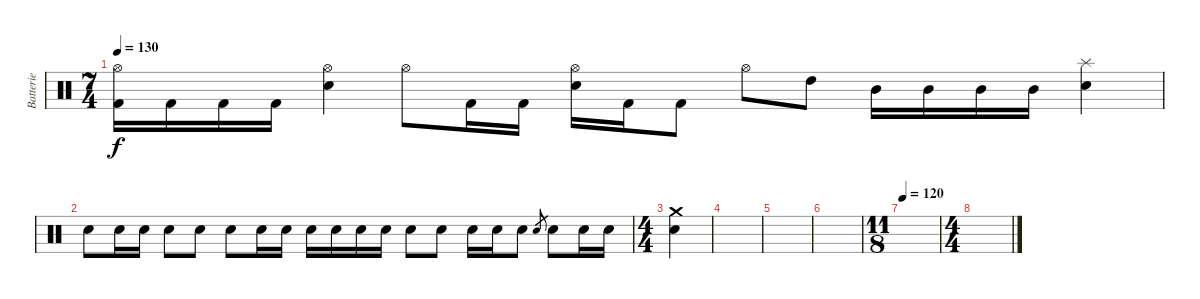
\track ("Batterie" "Batterie") {instrument percussion}
\staff {score}
\articulation defaults
\ts (7 4)
\tempo 130
\clef neutral
\ks c
("Hi-Hat (open)" "Kick (hit) 2").16{dy f} "Kick (hit) 2".16 "Kick (hit) 2".16 "Kick (hit) 2".16 ("Hi-Hat (open)" "Snare (hit) 2").4 "Hi-Hat (open)".8 "Kick (hit) 2".16 "Kick (hit) 2".16 ("Hi-Hat (open)" "Snare (hit) 2").16 "Kick (hit) 2".16 "Kick (hit) 2".8 "Hi-Hat (open)".8 "High Tom (hit)".8 "Mid Tom (hit)".16 "Mid Tom (hit)".16 "Mid Tom (hit)".16 "Mid Tom (hit)".16 ("Splash (hit)" "Snare (hit) 2").4 |
"Snare (hit) 2".8 "Snare (hit) 2".16 "Snare (hit) 2".16 "Snare (hit) 2".8 "Snare (hit) 2".8 "Snare (hit) 2".8 "Snare (hit) 2".16 "Snare (hit) 2".16 "Snare (hit) 2".16 "Snare (hit) 2".16 "Snare (hit) 2".16 "Snare (hit) 2".16 "Snare (hit) 2".8 "Snare (hit) 2".8 "Snare (hit) 2".16 "Snare (hit) 2".16 "Snare (hit) 2".8 "Snare (hit) 2".8{gr} "Snare (hit) 2".8 "Snare (hit) 2".16 "Snare (hit) 2".16 |
\ts (4 4)
("Crash medium (hit)" "Snare (hit) 2").4 |
|
|
|
\ts (11 8)
\tempo 120
|
\ts (4 4)
